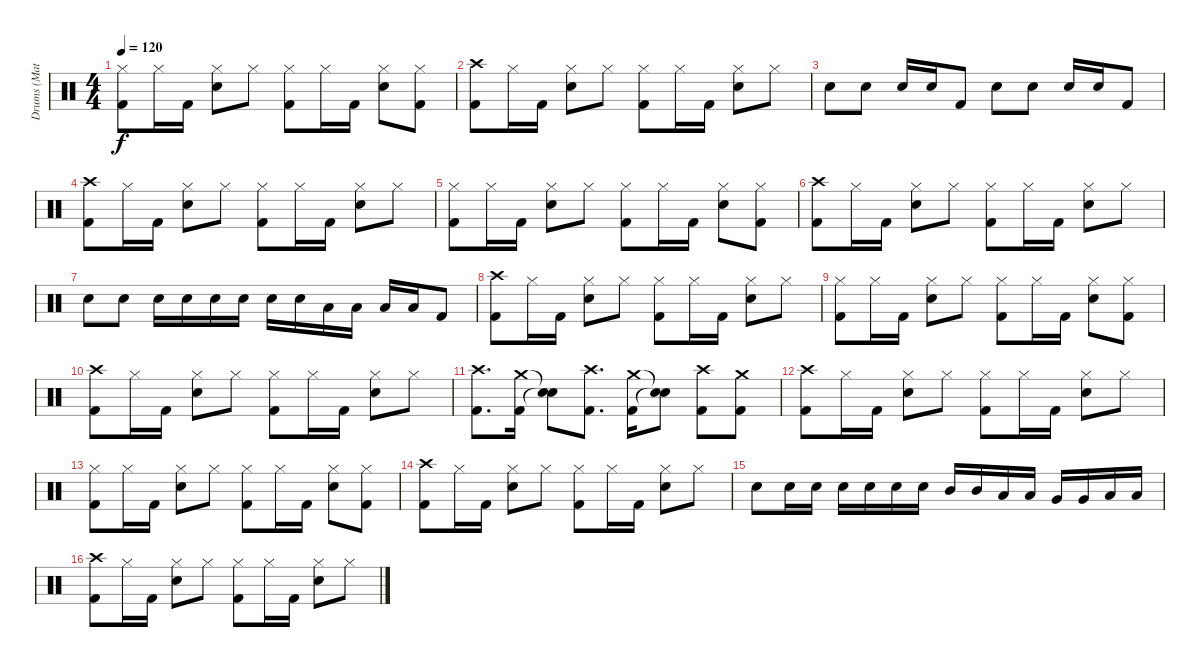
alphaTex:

\track ("Drums (Matt)" "Drums (Mat") {instrument percussion}
\staff {score}
\articulation defaults
\ts (4 4)
\tempo 120
\clef neutral
\ks c
("Hi-Hat (closed)" "Kick (hit) 2").8{dy f} "Hi-Hat (closed)".16 "Kick (hit) 2".16 ("Hi-Hat (closed)" "Snare (hit) 2").8 "Hi-Hat (closed)".8 ("Hi-Hat (closed)" "Kick (hit) 2").8 "Hi-Hat (closed)".16 "Kick (hit) 2".16 ("Hi-Hat (closed)" "Snare (hit) 2").8 ("Hi-Hat (closed)" "Kick (hit) 2").8 |
("Crash high (hit)" "Kick (hit) 2").8 "Hi-Hat (closed)".16 "Kick (hit) 2".16 ("Hi-Hat (closed)" "Snare (hit) 2").8 "Hi-Hat (closed)".8 ("Hi-Hat (closed)" "Kick (hit) 2").8 "Hi-Hat (closed)".16 "Kick (hit) 2".16 ("Hi-Hat (closed)" "Snare (hit) 2").8 "Hi-Hat (closed)".8 |
"Snare (hit) 2".8 "Snare (hit) 2".8 "Snare (hit) 2".16 "Snare (hit) 2".16 "Kick (hit) 2".8 "Snare (hit) 2".8 "Snare (hit) 2".8 "Snare (hit) 2".16 "Snare (hit) 2".16 "Kick (hit) 2".8 |
("Crash high (hit)" "Kick (hit) 2").8 "Hi-Hat (closed)".16 "Kick (hit) 2".16 ("Hi-Hat (closed)" "Snare (hit) 2").8 "Hi-Hat (closed)".8 ("Hi-Hat (closed)" "Kick (hit) 2").8 "Hi-Hat (closed)".16 "Kick (hit) 2".16 ("Hi-Hat (closed)" "Snare (hit) 2").8 "Hi-Hat (closed)".8 |
("Hi-Hat (closed)" "Kick (hit) 2").8 "Hi-Hat (closed)".16 "Kick (hit) 2".16 ("Hi-Hat (closed)" "Snare (hit) 2").8 "Hi-Hat (closed)".8 ("Hi-Hat (closed)" "Kick (hit) 2").8 "Hi-Hat (closed)".16 "Kick (hit) 2".16 ("Hi-Hat (closed)" "Snare (hit) 2").8 ("Hi-Hat (closed)" "Kick (hit) 2").8 |
("Crash high (hit)" "Kick (hit) 2").8 "Hi-Hat (closed)".16 "Kick (hit) 2".16 ("Hi-Hat (closed)" "Snare (hit) 2").8 "Hi-Hat (closed)".8 ("Hi-Hat (closed)" "Kick (hit) 2").8 "Hi-Hat (closed)".16 "Kick (hit) 2".16 ("Hi-Hat (closed)" "Snare (hit) 2").8 "Hi-Hat (closed)".8 |
"Snare (hit) 2".8 "Snare (hit) 2".8 "Snare (hit) 2".16 "Snare (hit) 2".16 "Snare (hit) 2".16 "Snare (hit) 2".16 "Snare (hit) 2".16 "Snare (hit) 2".16 "Low Tom (hit)".16 "Low Tom (hit)".16 "Low Tom (hit)".16 "Low Tom (hit)".16 "Kick (hit) 2".8 |
("Crash high (hit)" "Kick (hit) 2").8 "Hi-Hat (closed)".16 "Kick (hit) 2".16 ("Hi-Hat (closed)" "Snare (hit) 2").8 "Hi-Hat (closed)".8 ("Hi-Hat (closed)" "Kick (hit) 2").8 "Hi-Hat (closed)".16 "Kick (hit) 2".16 ("Hi-Hat (closed)" "Snare (hit) 2").8 "Hi-Hat (closed)".8 |
("Hi-Hat (closed)" "Kick (hit) 2").8 "Hi-Hat (closed)".16 "Kick (hit) 2".16 ("Hi-Hat (closed)" "Snare (hit) 2").8 "Hi-Hat (closed)".8 ("Hi-Hat (closed)" "Kick (hit) 2").8 "Hi-Hat (closed)".16 "Kick (hit) 2".16 ("Hi-Hat (closed)" "Snare (hit) 2").8 ("Hi-Hat (closed)" "Kick (hit) 2").8 |
("Crash high (hit)" "Kick (hit) 2").8 "Hi-Hat (closed)".16 "Kick (hit) 2".16 ("Hi-Hat (closed)" "Snare (hit) 2").8 "Hi-Hat (closed)".8 ("Hi-Hat (closed)" "Kick (hit) 2").8 "Hi-Hat (closed)".16 "Kick (hit) 2".16 ("Hi-Hat (closed)" "Snare (hit) 2").8 "Hi-Hat (closed)".8 |
("Crash high (hit)" "Kick (hit) 2").8{d} ("Crash medium (hit)" "Kick (hit) 2").16 ("Snare (hit)"{t} "Snare (hit)"{t}).8 ("Crash high (hit)" "Kick (hit) 2").8{d} ("Crash medium (hit)" "Kick (hit) 2").16 ("Snare (hit)"{t} "Snare (hit)"{t}).8 ("Crash high (hit)" "Kick (hit) 2").8 ("Crash medium (hit)" "Kick (hit) 2").8 |
("Crash high (hit)" "Kick (hit) 2").8 "Hi-Hat (closed)".16 "Kick (hit) 2".16 ("Hi-Hat (closed)" "Snare (hit) 2").8 "Hi-Hat (closed)".8 ("Hi-Hat (closed)" "Kick (hit) 2").8 "Hi-Hat (closed)".16 "Kick (hit) 2".16 ("Hi-Hat (closed)" "Snare (hit) 2").8 "Hi-Hat (closed)".8 |
("Hi-Hat (closed)" "Kick (hit) 2").8 "Hi-Hat (closed)".16 "Kick (hit) 2".16 ("Hi-Hat (closed)" "Snare (hit) 2").8 "Hi-Hat (closed)".8 ("Hi-Hat (closed)" "Kick (hit) 2").8 "Hi-Hat (closed)".16 "Kick (hit) 2".16 ("Hi-Hat (closed)" "Snare (hit) 2").8 ("Hi-Hat (closed)" "Kick (hit) 2").8 |
("Crash high (hit)" "Kick (hit) 2").8 "Hi-Hat (closed)".16 "Kick (hit) 2".16 ("Hi-Hat (closed)" "Snare (hit) 2").8 "Hi-Hat (closed)".8 ("Hi-Hat (closed)" "Kick (hit) 2").8 "Hi-Hat (closed)".16 "Kick (hit) 2".16 ("Hi-Hat (closed)" "Snare (hit) 2").8 "Hi-Hat (closed)".8 |
"Snare (hit) 2".8 "Snare (hit) 2".16 "Snare (hit) 2".16 "Snare (hit) 2".16 "Snare (hit) 2".16 "Snare (hit) 2".16 "Snare (hit) 2".16 "Mid Tom (hit)".16 "Mid Tom (hit)".16 "Low Tom (hit)".16 "Low Tom (hit)".16 "Very Low Tom (hit)".16 "Very Low Tom (hit)".16 "Low Floor Tom (hit)".16 "Low Floor Tom (hit)".16 |
("Crash high (hit)" "Kick (hit) 2").8 "Hi-Hat (closed)".16 "Kick (hit) 2".16 ("Hi-Hat (closed)" "Snare (hit) 2").8 "Hi-Hat (closed)".8 ("Hi-Hat (closed)" "Kick (hit) 2").8 "Hi-Hat (closed)".16 "Kick (hit) 2".16 ("Hi-Hat (closed)" "Snare (hit) 2").8 "Hi-Hat (closed)".8
